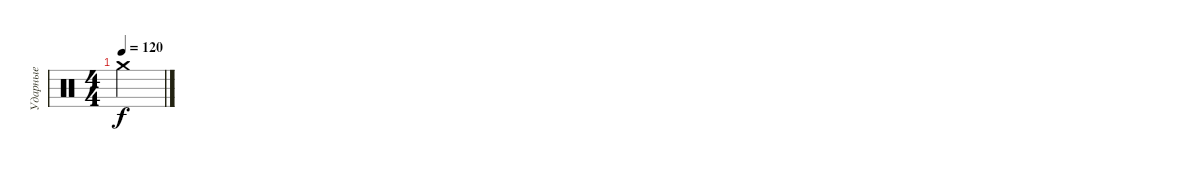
\track ("Ударные" "Ударные") {instrument percussion}
\staff {score}
\articulation defaults
\ts (4 4)
\tempo 120
\clef neutral
\ks c "Crash medium (hit)".2{dy f}
